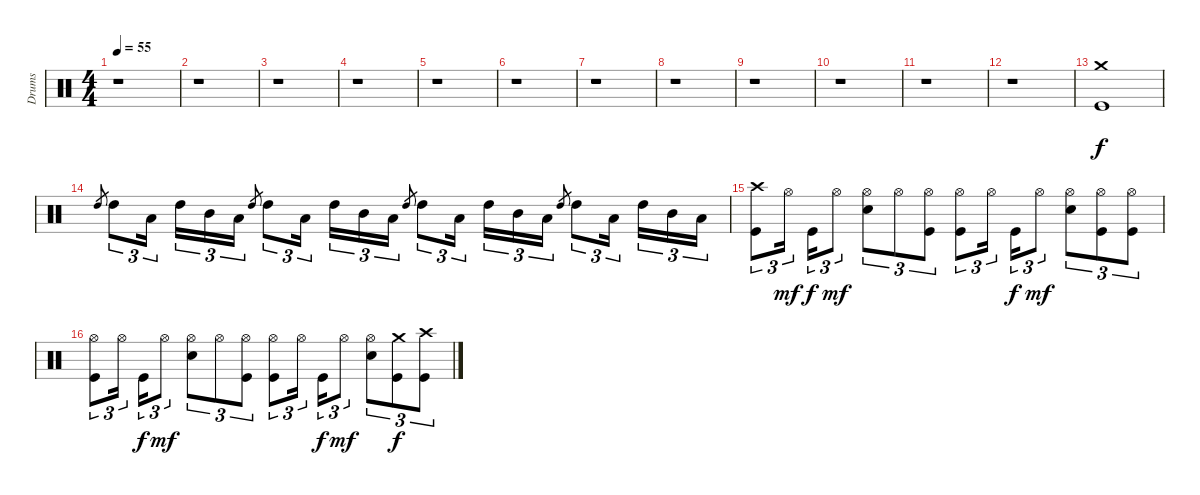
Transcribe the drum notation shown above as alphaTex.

\track ("Drums" "Drums") {instrument percussion}
\staff {score}
\articulation defaults
\ts (4 4)
\tempo 55
\clef neutral
\ks c
r.1{dy f} |
r.1 |
r.1 |
r.1 |
r.1 |
r.1 |
r.1 |
r.1 |
r.1 |
r.1 |
r.1 |
r.1 |
("Crash medium (hit)" "Kick (hit)").1 |
"High Tom (hit)".8{gr} "High Tom (hit)".8{tu (3 2)} "Low Tom (hit)".16{tu (3 2)} "High Tom (hit)".16{tu (3 2)} "Mid Tom (hit)".16{tu (3 2)} "Low Tom (hit)".16{tu (3 2)} "High Tom (hit)".8{gr} "High Tom (hit)".8{tu (3 2)} "Low Tom (hit)".16{tu (3 2)} "High Tom (hit)".16{tu (3 2)} "Mid Tom (hit)".16{tu (3 2)} "Low Tom (hit)".16{tu (3 2)} "High Tom (hit)".8{gr} "High Tom (hit)".8{tu (3 2)} "Low Tom (hit)".16{tu (3 2)} "High Tom (hit)".16{tu (3 2)} "Mid Tom (hit)".16{tu (3 2)} "Low Tom (hit)".16{tu (3 2)} "High Tom (hit)".8{gr} "High Tom (hit)".8{tu (3 2)} "Low Tom (hit)".16{tu (3 2)} "High Tom (hit)".16{tu (3 2)} "Mid Tom (hit)".16{tu (3 2)} "Low Tom (hit)".16{tu (3 2)} |
("Crash high (hit)" "Kick (hit)").8{tu (3 2)} "Hi-Hat (open)".16{tu (3 2) dy mf} "Kick (hit)".16{tu (3 2) dy f} "Hi-Hat (open)".8{tu (3 2) dy mf} ("Hi-Hat (open)" "Electric Snare (hit)").8{tu (3 2)} "Hi-Hat (open)".8{tu (3 2)} ("Hi-Hat (open)" "Kick (hit)").8{tu (3 2)} ("Hi-Hat (open)" "Kick (hit)").8{tu (3 2)} "Hi-Hat (open)".16{tu (3 2)} "Kick (hit)".16{tu (3 2) dy f} "Hi-Hat (open)".8{tu (3 2) dy mf} ("Hi-Hat (open)" "Electric Snare (hit)").8{tu (3 2)} ("Hi-Hat (open)" "Kick (hit)").8{tu (3 2)} ("Hi-Hat (open)" "Kick (hit)").8{tu (3 2)} |
("Hi-Hat (open)" "Kick (hit)").8{tu (3 2)} "Hi-Hat (open)".16{tu (3 2)} "Kick (hit)".16{tu (3 2) dy f} "Hi-Hat (open)".8{tu (3 2) dy mf} ("Hi-Hat (open)" "Electric Snare (hit)").8{tu (3 2)} "Hi-Hat (open)".8{tu (3 2)} ("Hi-Hat (open)" "Kick (hit)").8{tu (3 2)} ("Hi-Hat (open)" "Kick (hit)").8{tu (3 2)} "Hi-Hat (open)".16{tu (3 2)} "Kick (hit)".16{tu (3 2) dy f} "Hi-Hat (open)".8{tu (3 2) dy mf} ("Hi-Hat (open)" "Electric Snare (hit)").8{tu (3 2)} ("Crash medium (hit)" "Kick (hit)").8{tu (3 2) dy f} ("Crash high (hit)" "Kick (hit)").8{tu (3 2)}
